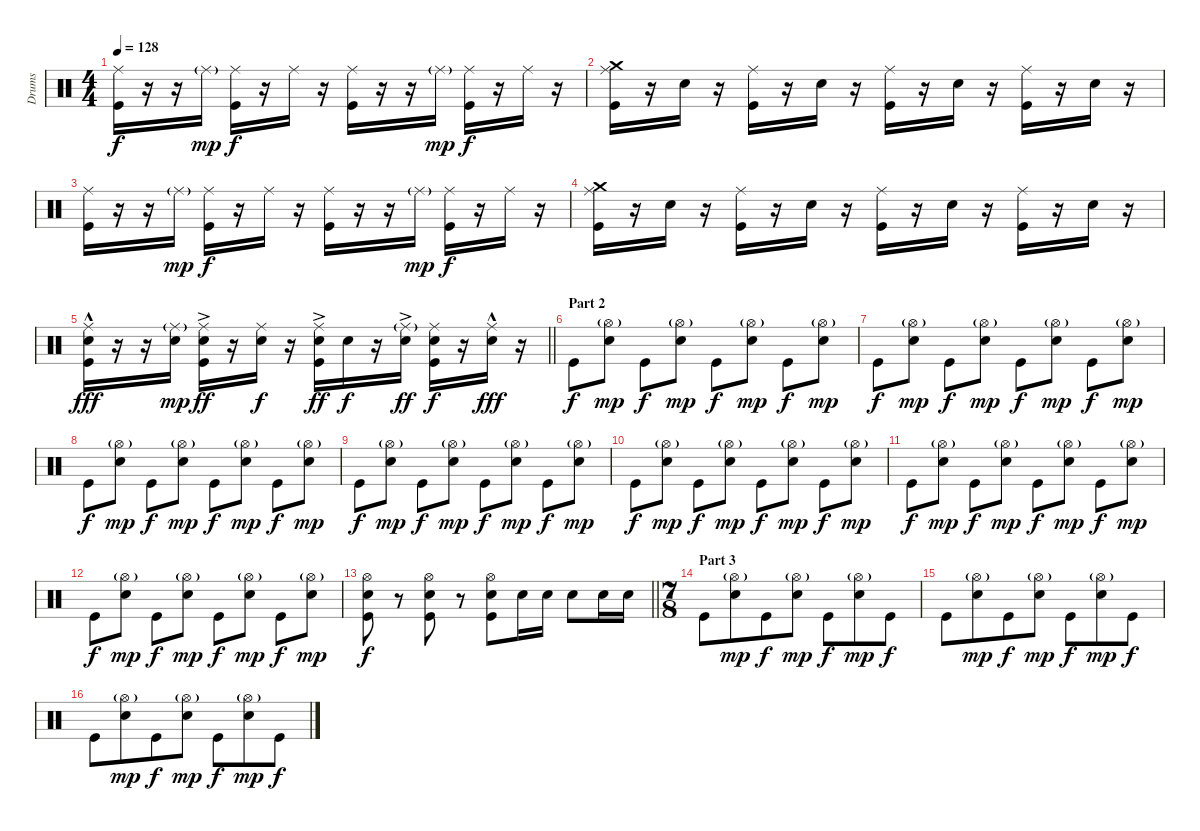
\track ("Drums" "Drums") {instrument percussion}
\staff {score}
\articulation defaults
\ts (4 4)
\tempo 128
\clef neutral
\ks c
("Ride (middle)" "Kick (hit)").16{dy f} r.16 r.16 "Ride (middle)"{g}.16{dy mp} ("Ride (middle)" "Kick (hit)").16{dy f} r.16 "Ride (middle)".16 r.16 ("Ride (middle)" "Kick (hit)").16 r.16 r.16 "Ride (middle)"{g}.16{dy mp} ("Ride (middle)" "Kick (hit)").16{dy f} r.16 "Ride (middle)".16 r.16 |
("Ride (middle)" "Crash medium (hit)" "Kick (hit)").16 r.16 "Electric Snare (hit)".16 r.16 ("Ride (middle)" "Kick (hit)").16 r.16 "Electric Snare (hit)".16 r.16 ("Ride (middle)" "Kick (hit)").16 r.16 "Electric Snare (hit)".16 r.16 ("Ride (middle)" "Kick (hit)").16 r.16 "Electric Snare (hit)".16 r.16 |
("Ride (middle)" "Kick (hit)").16 r.16 r.16 "Ride (middle)"{g}.16{dy mp} ("Ride (middle)" "Kick (hit)").16{dy f} r.16 "Ride (middle)".16 r.16 ("Ride (middle)" "Kick (hit)").16 r.16 r.16 "Ride (middle)"{g}.16{dy mp} ("Ride (middle)" "Kick (hit)").16{dy f} r.16 "Ride (middle)".16 r.16 |
("Ride (middle)" "Crash medium (hit)" "Kick (hit)").16 r.16 "Electric Snare (hit)".16 r.16 ("Ride (middle)" "Kick (hit)").16 r.16 "Electric Snare (hit)".16 r.16 ("Ride (middle)" "Kick (hit)").16 r.16 "Electric Snare (hit)".16 r.16 ("Ride (middle)" "Kick (hit)").16 r.16 "Electric Snare (hit)".16 r.16 |
\barLineRight lightlight
("Ride (middle)" "Electric Snare (hit)"{hac} "Kick (hit)").16{dy fff} r.16 r.16 ("Ride (middle)"{g} "Electric Snare (hit)").16{dy mp} ("Ride (middle)" "Electric Snare (hit)"{ac} "Kick (hit)").16{dy ff} r.16 ("Ride (middle)" "Electric Snare (hit)").16{dy f} r.16 ("Ride (middle)" "Electric Snare (hit)"{ac} "Kick (hit)").16{dy ff} "Electric Snare (hit)".16{dy f} r.16 ("Ride (middle)"{g} "Electric Snare (hit)"{ac}).16{dy ff} ("Ride (middle)" "Electric Snare (hit)" "Kick (hit)").16{dy f} r.16 ("Ride (middle)" "Electric Snare (hit)"{hac}).16{dy fff} r.16 |
\section ("" "Part 2")
"Kick (hit)".8{dy f} ("Hi-Hat (open)"{g} "Electric Snare (hit)").8{dy mp} "Kick (hit)".8{dy f} ("Hi-Hat (open)"{g} "Electric Snare (hit)").8{dy mp} "Kick (hit)".8{dy f} ("Hi-Hat (open)"{g} "Electric Snare (hit)").8{dy mp} "Kick (hit)".8{dy f} ("Hi-Hat (open)"{g} "Electric Snare (hit)").8{dy mp} |
"Kick (hit)".8{dy f} ("Hi-Hat (open)"{g} "Electric Snare (hit)").8{dy mp} "Kick (hit)".8{dy f} ("Hi-Hat (open)"{g} "Electric Snare (hit)").8{dy mp} "Kick (hit)".8{dy f} ("Hi-Hat (open)"{g} "Electric Snare (hit)").8{dy mp} "Kick (hit)".8{dy f} ("Hi-Hat (open)"{g} "Electric Snare (hit)").8{dy mp} |
"Kick (hit)".8{dy f} ("Hi-Hat (open)"{g} "Electric Snare (hit)").8{dy mp} "Kick (hit)".8{dy f} ("Hi-Hat (open)"{g} "Electric Snare (hit)").8{dy mp} "Kick (hit)".8{dy f} ("Hi-Hat (open)"{g} "Electric Snare (hit)").8{dy mp} "Kick (hit)".8{dy f} ("Hi-Hat (open)"{g} "Electric Snare (hit)").8{dy mp} |
"Kick (hit)".8{dy f} ("Hi-Hat (open)"{g} "Electric Snare (hit)").8{dy mp} "Kick (hit)".8{dy f} ("Hi-Hat (open)"{g} "Electric Snare (hit)").8{dy mp} "Kick (hit)".8{dy f} ("Hi-Hat (open)"{g} "Electric Snare (hit)").8{dy mp} "Kick (hit)".8{dy f} ("Hi-Hat (open)"{g} "Electric Snare (hit)").8{dy mp} |
"Kick (hit)".8{dy f} ("Hi-Hat (open)"{g} "Electric Snare (hit)").8{dy mp} "Kick (hit)".8{dy f} ("Hi-Hat (open)"{g} "Electric Snare (hit)").8{dy mp} "Kick (hit)".8{dy f} ("Hi-Hat (open)"{g} "Electric Snare (hit)").8{dy mp} "Kick (hit)".8{dy f} ("Hi-Hat (open)"{g} "Electric Snare (hit)").8{dy mp} |
"Kick (hit)".8{dy f} ("Hi-Hat (open)"{g} "Electric Snare (hit)").8{dy mp} "Kick (hit)".8{dy f} ("Hi-Hat (open)"{g} "Electric Snare (hit)").8{dy mp} "Kick (hit)".8{dy f} ("Hi-Hat (open)"{g} "Electric Snare (hit)").8{dy mp} "Kick (hit)".8{dy f} ("Hi-Hat (open)"{g} "Electric Snare (hit)").8{dy mp} |
"Kick (hit)".8{dy f} ("Hi-Hat (open)"{g} "Electric Snare (hit)").8{dy mp} "Kick (hit)".8{dy f} ("Hi-Hat (open)"{g} "Electric Snare (hit)").8{dy mp} "Kick (hit)".8{dy f} ("Hi-Hat (open)"{g} "Electric Snare (hit)").8{dy mp} "Kick (hit)".8{dy f} ("Hi-Hat (open)"{g} "Electric Snare (hit)").8{dy mp} |
\barLineRight lightlight
("Hi-Hat (open)" "Electric Snare (hit)" "Kick (hit)").8{dy f} r.8 ("Hi-Hat (open)" "Electric Snare (hit)" "Kick (hit)").8 r.8 ("Hi-Hat (open)" "Electric Snare (hit)" "Kick (hit)").8 "Electric Snare (hit)".16 "Electric Snare (hit)".16 "Electric Snare (hit)".8 "Electric Snare (hit)".16 "Electric Snare (hit)".16 |
\ts (7 8)
\section ("" "Part 3")
"Kick (hit)".8 ("Hi-Hat (open)"{g} "Electric Snare (hit)").8{dy mp} "Kick (hit)".8{dy f} ("Hi-Hat (open)"{g} "Electric Snare (hit)").8{dy mp} "Kick (hit)".8{dy f} ("Hi-Hat (open)"{g} "Electric Snare (hit)").8{dy mp} "Kick (hit)".8{dy f} |
"Kick (hit)".8 ("Hi-Hat (open)"{g} "Electric Snare (hit)").8{dy mp} "Kick (hit)".8{dy f} ("Hi-Hat (open)"{g} "Electric Snare (hit)").8{dy mp} "Kick (hit)".8{dy f} ("Hi-Hat (open)"{g} "Electric Snare (hit)").8{dy mp} "Kick (hit)".8{dy f} |
"Kick (hit)".8 ("Hi-Hat (open)"{g} "Electric Snare (hit)").8{dy mp} "Kick (hit)".8{dy f} ("Hi-Hat (open)"{g} "Electric Snare (hit)").8{dy mp} "Kick (hit)".8{dy f} ("Hi-Hat (open)"{g} "Electric Snare (hit)").8{dy mp} "Kick (hit)".8{dy f}
